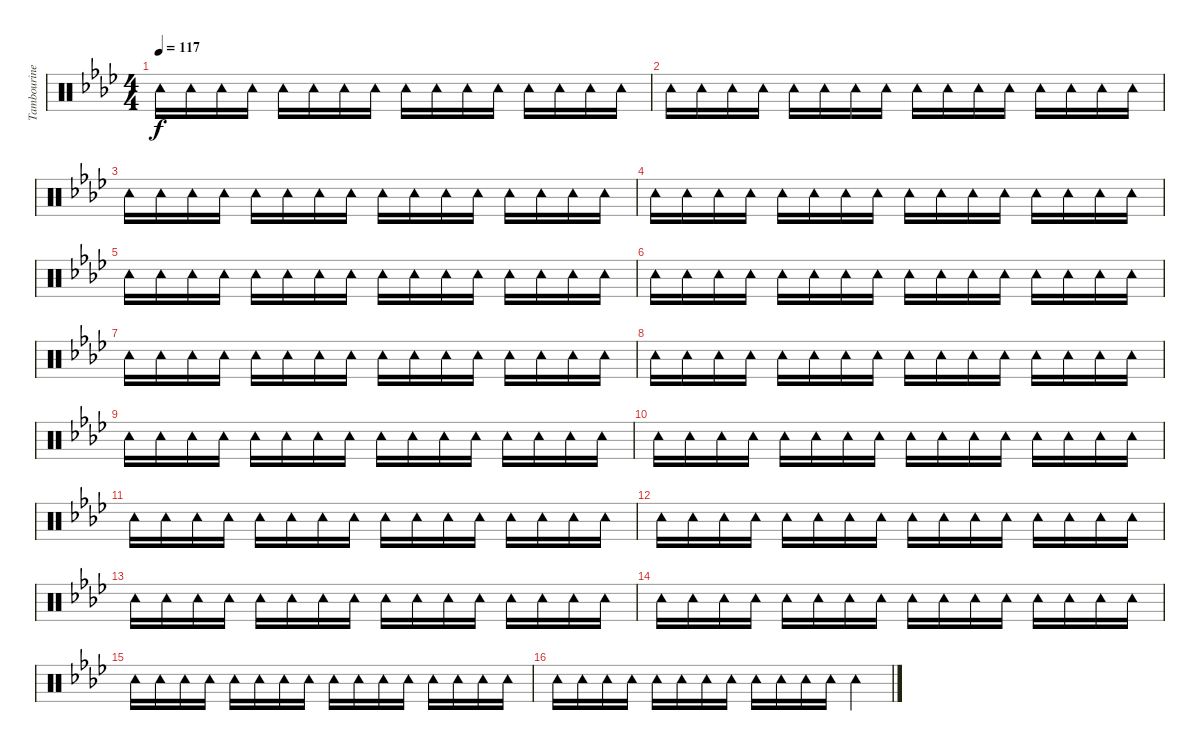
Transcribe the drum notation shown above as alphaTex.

\track ("Tambourine" "Tambourine") {instrument percussion}
\staff {score}
\articulation defaults
\ts (4 4)
\tempo 117
\clef neutral
\ks ab "Tambourine (hit)".16{dy f} "Tambourine (hit)".16 "Tambourine (hit)".16 "Tambourine (hit)".16 "Tambourine (hit)".16 "Tambourine (hit)".16 "Tambourine (hit)".16 "Tambourine (hit)".16 "Tambourine (hit)".16 "Tambourine (hit)".16 "Tambourine (hit)".16 "Tambourine (hit)".16 "Tambourine (hit)".16 "Tambourine (hit)".16 "Tambourine (hit)".16 "Tambourine (hit)".16
|
"Tambourine (hit)".16 "Tambourine (hit)".16 "Tambourine (hit)".16 "Tambourine (hit)".16 "Tambourine (hit)".16 "Tambourine (hit)".16 "Tambourine (hit)".16 "Tambourine (hit)".16 "Tambourine (hit)".16 "Tambourine (hit)".16 "Tambourine (hit)".16 "Tambourine (hit)".16 "Tambourine (hit)".16 "Tambourine (hit)".16 "Tambourine (hit)".16 "Tambourine (hit)".16 |
"Tambourine (hit)".16 "Tambourine (hit)".16 "Tambourine (hit)".16 "Tambourine (hit)".16 "Tambourine (hit)".16 "Tambourine (hit)".16 "Tambourine (hit)".16 "Tambourine (hit)".16 "Tambourine (hit)".16 "Tambourine (hit)".16 "Tambourine (hit)".16 "Tambourine (hit)".16 "Tambourine (hit)".16 "Tambourine (hit)".16 "Tambourine (hit)".16 "Tambourine (hit)".16 |
"Tambourine (hit)".16 "Tambourine (hit)".16 "Tambourine (hit)".16 "Tambourine (hit)".16 "Tambourine (hit)".16 "Tambourine (hit)".16 "Tambourine (hit)".16 "Tambourine (hit)".16 "Tambourine (hit)".16 "Tambourine (hit)".16 "Tambourine (hit)".16 "Tambourine (hit)".16 "Tambourine (hit)".16 "Tambourine (hit)".16 "Tambourine (hit)".16 "Tambourine (hit)".16 |
"Tambourine (hit)".16 "Tambourine (hit)".16 "Tambourine (hit)".16 "Tambourine (hit)".16 "Tambourine (hit)".16 "Tambourine (hit)".16 "Tambourine (hit)".16 "Tambourine (hit)".16 "Tambourine (hit)".16 "Tambourine (hit)".16 "Tambourine (hit)".16 "Tambourine (hit)".16 "Tambourine (hit)".16 "Tambourine (hit)".16 "Tambourine (hit)".16 "Tambourine (hit)".16 |
"Tambourine (hit)".16 "Tambourine (hit)".16 "Tambourine (hit)".16 "Tambourine (hit)".16 "Tambourine (hit)".16 "Tambourine (hit)".16 "Tambourine (hit)".16 "Tambourine (hit)".16 "Tambourine (hit)".16 "Tambourine (hit)".16 "Tambourine (hit)".16 "Tambourine (hit)".16 "Tambourine (hit)".16 "Tambourine (hit)".16 "Tambourine (hit)".16 "Tambourine (hit)".16 |
"Tambourine (hit)".16 "Tambourine (hit)".16 "Tambourine (hit)".16 "Tambourine (hit)".16 "Tambourine (hit)".16 "Tambourine (hit)".16 "Tambourine (hit)".16 "Tambourine (hit)".16 "Tambourine (hit)".16 "Tambourine (hit)".16 "Tambourine (hit)".16 "Tambourine (hit)".16 "Tambourine (hit)".16 "Tambourine (hit)".16 "Tambourine (hit)".16 "Tambourine (hit)".16 |
"Tambourine (hit)".16 "Tambourine (hit)".16 "Tambourine (hit)".16 "Tambourine (hit)".16 "Tambourine (hit)".16 "Tambourine (hit)".16 "Tambourine (hit)".16 "Tambourine (hit)".16 "Tambourine (hit)".16 "Tambourine (hit)".16 "Tambourine (hit)".16 "Tambourine (hit)".16 "Tambourine (hit)".16 "Tambourine (hit)".16 "Tambourine (hit)".16 "Tambourine (hit)".16 |
"Tambourine (hit)".16 "Tambourine (hit)".16 "Tambourine (hit)".16 "Tambourine (hit)".16 "Tambourine (hit)".16 "Tambourine (hit)".16 "Tambourine (hit)".16 "Tambourine (hit)".16 "Tambourine (hit)".16 "Tambourine (hit)".16 "Tambourine (hit)".16 "Tambourine (hit)".16 "Tambourine (hit)".16 "Tambourine (hit)".16 "Tambourine (hit)".16 "Tambourine (hit)".16 |
"Tambourine (hit)".16 "Tambourine (hit)".16 "Tambourine (hit)".16 "Tambourine (hit)".16 "Tambourine (hit)".16 "Tambourine (hit)".16 "Tambourine (hit)".16 "Tambourine (hit)".16 "Tambourine (hit)".16 "Tambourine (hit)".16 "Tambourine (hit)".16 "Tambourine (hit)".16 "Tambourine (hit)".16 "Tambourine (hit)".16 "Tambourine (hit)".16 "Tambourine (hit)".16 |
"Tambourine (hit)".16 "Tambourine (hit)".16 "Tambourine (hit)".16 "Tambourine (hit)".16 "Tambourine (hit)".16 "Tambourine (hit)".16 "Tambourine (hit)".16 "Tambourine (hit)".16 "Tambourine (hit)".16 "Tambourine (hit)".16 "Tambourine (hit)".16 "Tambourine (hit)".16 "Tambourine (hit)".16 "Tambourine (hit)".16 "Tambourine (hit)".16 "Tambourine (hit)".16 |
"Tambourine (hit)".16 "Tambourine (hit)".16 "Tambourine (hit)".16 "Tambourine (hit)".16 "Tambourine (hit)".16 "Tambourine (hit)".16 "Tambourine (hit)".16 "Tambourine (hit)".16 "Tambourine (hit)".16 "Tambourine (hit)".16 "Tambourine (hit)".16 "Tambourine (hit)".16 "Tambourine (hit)".16 "Tambourine (hit)".16 "Tambourine (hit)".16 "Tambourine (hit)".16 |
"Tambourine (hit)".16 "Tambourine (hit)".16 "Tambourine (hit)".16 "Tambourine (hit)".16 "Tambourine (hit)".16 "Tambourine (hit)".16 "Tambourine (hit)".16 "Tambourine (hit)".16 "Tambourine (hit)".16 "Tambourine (hit)".16 "Tambourine (hit)".16 "Tambourine (hit)".16 "Tambourine (hit)".16 "Tambourine (hit)".16 "Tambourine (hit)".16 "Tambourine (hit)".16 |
"Tambourine (hit)".16 "Tambourine (hit)".16 "Tambourine (hit)".16 "Tambourine (hit)".16 "Tambourine (hit)".16 "Tambourine (hit)".16 "Tambourine (hit)".16 "Tambourine (hit)".16 "Tambourine (hit)".16 "Tambourine (hit)".16 "Tambourine (hit)".16 "Tambourine (hit)".16 "Tambourine (hit)".16 "Tambourine (hit)".16 "Tambourine (hit)".16 "Tambourine (hit)".16 |
"Tambourine (hit)".16 "Tambourine (hit)".16 "Tambourine (hit)".16 "Tambourine (hit)".16 "Tambourine (hit)".16 "Tambourine (hit)".16 "Tambourine (hit)".16 "Tambourine (hit)".16 "Tambourine (hit)".16 "Tambourine (hit)".16 "Tambourine (hit)".16 "Tambourine (hit)".16 "Tambourine (hit)".16 "Tambourine (hit)".16 "Tambourine (hit)".16 "Tambourine (hit)".16 |
"Tambourine (hit)".16 "Tambourine (hit)".16 "Tambourine (hit)".16 "Tambourine (hit)".16 "Tambourine (hit)".16 "Tambourine (hit)".16 "Tambourine (hit)".16 "Tambourine (hit)".16 "Tambourine (hit)".16 "Tambourine (hit)".16 "Tambourine (hit)".16 "Tambourine (hit)".16 "Tambourine (hit)".4
